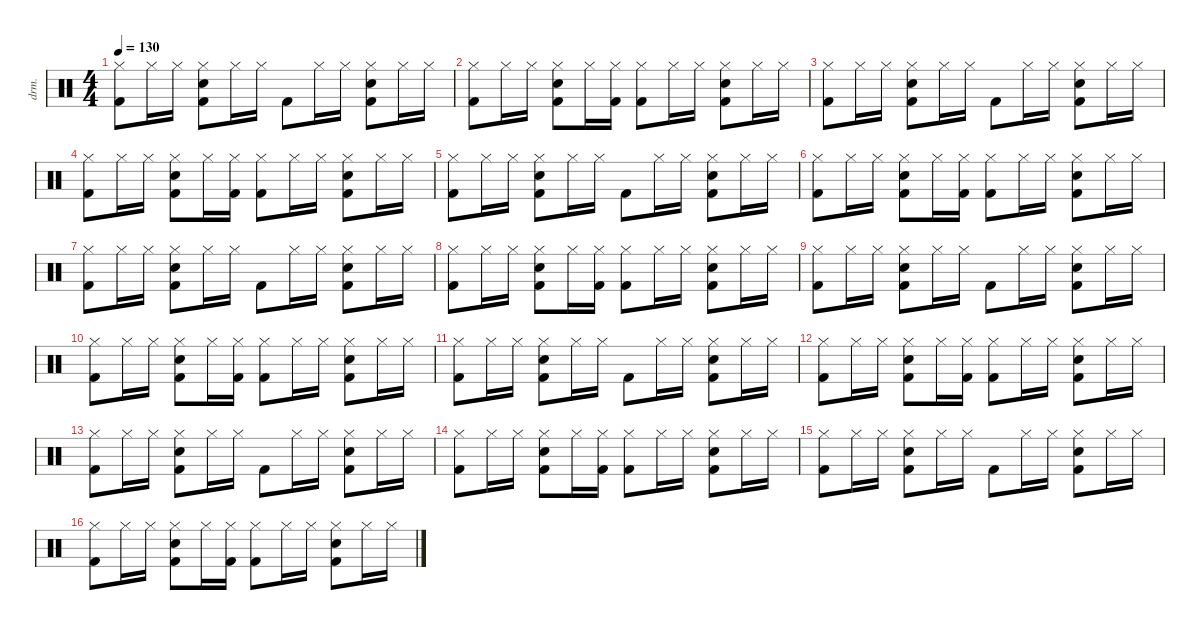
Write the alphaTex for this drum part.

\defaultSystemsLayout 4
\hideDynamics
\bracketExtendMode nobrackets
\otherSystemsTrackNameOrientation horizontal
\track ("Percussion" "drm.") {defaultSystemsLayout 4 instrument percussion}
\staff {score}
\articulation defaults
\ts (4 4)
\tempo 130
\clef neutral
\ks c
("Hi-Hat (closed)" "Kick (hit) 2").8{dy f beam Down} "Hi-Hat (closed)".16{beam Down} "Hi-Hat (closed)".16{beam Down} ("Hi-Hat (closed)" "Snare (hit) 2" "Kick (hit) 2").8{beam Down} "Hi-Hat (closed)".16{beam Down} "Hi-Hat (closed)".16{beam Down} "Kick (hit) 2".8{beam Down} "Hi-Hat (closed)".16{beam Down} "Hi-Hat (closed)".16{beam Down} ("Hi-Hat (closed)" "Snare (hit) 2" "Kick (hit) 2").8{beam Down} "Hi-Hat (closed)".16{beam Down} "Hi-Hat (closed)".16{beam Down} |
("Hi-Hat (closed)" "Kick (hit) 2").8{beam Down} "Hi-Hat (closed)".16{beam Down} "Hi-Hat (closed)".16{beam Down} ("Hi-Hat (closed)" "Snare (hit) 2" "Kick (hit) 2").8{beam Down} "Hi-Hat (closed)".16{beam Down} ("Hi-Hat (closed)" "Kick (hit) 2").16{beam Down} ("Hi-Hat (closed)" "Kick (hit) 2").8{beam Down} "Hi-Hat (closed)".16{beam Down} "Hi-Hat (closed)".16{beam Down} ("Hi-Hat (closed)" "Snare (hit) 2" "Kick (hit) 2").8{beam Down} "Hi-Hat (closed)".16{beam Down} "Hi-Hat (closed)".16{beam Down} |
("Hi-Hat (closed)" "Kick (hit) 2").8{beam Down} "Hi-Hat (closed)".16{beam Down} "Hi-Hat (closed)".16{beam Down} ("Hi-Hat (closed)" "Snare (hit) 2" "Kick (hit) 2").8{beam Down} "Hi-Hat (closed)".16{beam Down} "Hi-Hat (closed)".16{beam Down} "Kick (hit) 2".8{beam Down} "Hi-Hat (closed)".16{beam Down} "Hi-Hat (closed)".16{beam Down} ("Hi-Hat (closed)" "Snare (hit) 2" "Kick (hit) 2").8{beam Down} "Hi-Hat (closed)".16{beam Down} "Hi-Hat (closed)".16{beam Down} |
("Hi-Hat (closed)" "Kick (hit) 2").8{beam Down} "Hi-Hat (closed)".16{beam Down} "Hi-Hat (closed)".16{beam Down} ("Hi-Hat (closed)" "Snare (hit) 2" "Kick (hit) 2").8{beam Down} "Hi-Hat (closed)".16{beam Down} ("Hi-Hat (closed)" "Kick (hit) 2").16{beam Down} ("Hi-Hat (closed)" "Kick (hit) 2").8{beam Down} "Hi-Hat (closed)".16{beam Down} "Hi-Hat (closed)".16{beam Down} ("Hi-Hat (closed)" "Snare (hit) 2" "Kick (hit) 2").8{beam Down} "Hi-Hat (closed)".16{beam Down} "Hi-Hat (closed)".16{beam Down} |
("Hi-Hat (closed)" "Kick (hit) 2").8{beam Down} "Hi-Hat (closed)".16{beam Down} "Hi-Hat (closed)".16{beam Down} ("Hi-Hat (closed)" "Snare (hit) 2" "Kick (hit) 2").8{beam Down} "Hi-Hat (closed)".16{beam Down} "Hi-Hat (closed)".16{beam Down} "Kick (hit) 2".8{beam Down} "Hi-Hat (closed)".16{beam Down} "Hi-Hat (closed)".16{beam Down} ("Hi-Hat (closed)" "Snare (hit) 2" "Kick (hit) 2").8{beam Down} "Hi-Hat (closed)".16{beam Down} "Hi-Hat (closed)".16{beam Down} |
("Hi-Hat (closed)" "Kick (hit) 2").8{beam Down} "Hi-Hat (closed)".16{beam Down} "Hi-Hat (closed)".16{beam Down} ("Hi-Hat (closed)" "Snare (hit) 2" "Kick (hit) 2").8{beam Down} "Hi-Hat (closed)".16{beam Down} ("Hi-Hat (closed)" "Kick (hit) 2").16{beam Down} ("Hi-Hat (closed)" "Kick (hit) 2").8{beam Down} "Hi-Hat (closed)".16{beam Down} "Hi-Hat (closed)".16{beam Down} ("Hi-Hat (closed)" "Snare (hit) 2" "Kick (hit) 2").8{beam Down} "Hi-Hat (closed)".16{beam Down} "Hi-Hat (closed)".16{beam Down} |
("Hi-Hat (closed)" "Kick (hit) 2").8{beam Down} "Hi-Hat (closed)".16{beam Down} "Hi-Hat (closed)".16{beam Down} ("Hi-Hat (closed)" "Snare (hit) 2" "Kick (hit) 2").8{beam Down} "Hi-Hat (closed)".16{beam Down} "Hi-Hat (closed)".16{beam Down} "Kick (hit) 2".8{beam Down} "Hi-Hat (closed)".16{beam Down} "Hi-Hat (closed)".16{beam Down} ("Hi-Hat (closed)" "Snare (hit) 2" "Kick (hit) 2").8{beam Down} "Hi-Hat (closed)".16{beam Down} "Hi-Hat (closed)".16{beam Down} |
("Hi-Hat (closed)" "Kick (hit) 2").8{beam Down} "Hi-Hat (closed)".16{beam Down} "Hi-Hat (closed)".16{beam Down} ("Hi-Hat (closed)" "Snare (hit) 2" "Kick (hit) 2").8{beam Down} "Hi-Hat (closed)".16{beam Down} ("Hi-Hat (closed)" "Kick (hit) 2").16{beam Down} ("Hi-Hat (closed)" "Kick (hit) 2").8{beam Down} "Hi-Hat (closed)".16{beam Down} "Hi-Hat (closed)".16{beam Down} ("Hi-Hat (closed)" "Snare (hit) 2" "Kick (hit) 2").8{beam Down} "Hi-Hat (closed)".16{beam Down} "Hi-Hat (closed)".16{beam Down} |
("Hi-Hat (closed)" "Kick (hit) 2").8{beam Down} "Hi-Hat (closed)".16{beam Down} "Hi-Hat (closed)".16{beam Down} ("Hi-Hat (closed)" "Snare (hit) 2" "Kick (hit) 2").8{beam Down} "Hi-Hat (closed)".16{beam Down} "Hi-Hat (closed)".16{beam Down} "Kick (hit) 2".8{beam Down} "Hi-Hat (closed)".16{beam Down} "Hi-Hat (closed)".16{beam Down} ("Hi-Hat (closed)" "Snare (hit) 2" "Kick (hit) 2").8{beam Down} "Hi-Hat (closed)".16{beam Down} "Hi-Hat (closed)".16{beam Down} |
("Hi-Hat (closed)" "Kick (hit) 2").8{beam Down} "Hi-Hat (closed)".16{beam Down} "Hi-Hat (closed)".16{beam Down} ("Hi-Hat (closed)" "Snare (hit) 2" "Kick (hit) 2").8{beam Down} "Hi-Hat (closed)".16{beam Down} ("Hi-Hat (closed)" "Kick (hit) 2").16{beam Down} ("Hi-Hat (closed)" "Kick (hit) 2").8{beam Down} "Hi-Hat (closed)".16{beam Down} "Hi-Hat (closed)".16{beam Down} ("Hi-Hat (closed)" "Snare (hit) 2" "Kick (hit) 2").8{beam Down} "Hi-Hat (closed)".16{beam Down} "Hi-Hat (closed)".16{beam Down} |
("Hi-Hat (closed)" "Kick (hit) 2").8{beam Down} "Hi-Hat (closed)".16{beam Down} "Hi-Hat (closed)".16{beam Down} ("Hi-Hat (closed)" "Snare (hit) 2" "Kick (hit) 2").8{beam Down} "Hi-Hat (closed)".16{beam Down} "Hi-Hat (closed)".16{beam Down} "Kick (hit) 2".8{beam Down} "Hi-Hat (closed)".16{beam Down} "Hi-Hat (closed)".16{beam Down} ("Hi-Hat (closed)" "Snare (hit) 2" "Kick (hit) 2").8{beam Down} "Hi-Hat (closed)".16{beam Down} "Hi-Hat (closed)".16{beam Down} |
("Hi-Hat (closed)" "Kick (hit) 2").8{beam Down} "Hi-Hat (closed)".16{beam Down} "Hi-Hat (closed)".16{beam Down} ("Hi-Hat (closed)" "Snare (hit) 2" "Kick (hit) 2").8{beam Down} "Hi-Hat (closed)".16{beam Down} ("Hi-Hat (closed)" "Kick (hit) 2").16{beam Down} ("Hi-Hat (closed)" "Kick (hit) 2").8{beam Down} "Hi-Hat (closed)".16{beam Down} "Hi-Hat (closed)".16{beam Down} ("Hi-Hat (closed)" "Snare (hit) 2" "Kick (hit) 2").8{beam Down} "Hi-Hat (closed)".16{beam Down} "Hi-Hat (closed)".16{beam Down} |
("Hi-Hat (closed)" "Kick (hit) 2").8{beam Down} "Hi-Hat (closed)".16{beam Down} "Hi-Hat (closed)".16{beam Down} ("Hi-Hat (closed)" "Snare (hit) 2" "Kick (hit) 2").8{beam Down} "Hi-Hat (closed)".16{beam Down} "Hi-Hat (closed)".16{beam Down} "Kick (hit) 2".8{beam Down} "Hi-Hat (closed)".16{beam Down} "Hi-Hat (closed)".16{beam Down} ("Hi-Hat (closed)" "Snare (hit) 2" "Kick (hit) 2").8{beam Down} "Hi-Hat (closed)".16{beam Down} "Hi-Hat (closed)".16{beam Down} |
("Hi-Hat (closed)" "Kick (hit) 2").8{beam Down} "Hi-Hat (closed)".16{beam Down} "Hi-Hat (closed)".16{beam Down} ("Hi-Hat (closed)" "Snare (hit) 2" "Kick (hit) 2").8{beam Down} "Hi-Hat (closed)".16{beam Down} ("Hi-Hat (closed)" "Kick (hit) 2").16{beam Down} ("Hi-Hat (closed)" "Kick (hit) 2").8{beam Down} "Hi-Hat (closed)".16{beam Down} "Hi-Hat (closed)".16{beam Down} ("Hi-Hat (closed)" "Snare (hit) 2" "Kick (hit) 2").8{beam Down} "Hi-Hat (closed)".16{beam Down} "Hi-Hat (closed)".16{beam Down} |
("Hi-Hat (closed)" "Kick (hit) 2").8{beam Down} "Hi-Hat (closed)".16{beam Down} "Hi-Hat (closed)".16{beam Down} ("Hi-Hat (closed)" "Snare (hit) 2" "Kick (hit) 2").8{beam Down} "Hi-Hat (closed)".16{beam Down} "Hi-Hat (closed)".16{beam Down} "Kick (hit) 2".8{beam Down} "Hi-Hat (closed)".16{beam Down} "Hi-Hat (closed)".16{beam Down} ("Hi-Hat (closed)" "Snare (hit) 2" "Kick (hit) 2").8{beam Down} "Hi-Hat (closed)".16{beam Down} "Hi-Hat (closed)".16{beam Down} |
("Hi-Hat (closed)" "Kick (hit) 2").8{beam Down} "Hi-Hat (closed)".16{beam Down} "Hi-Hat (closed)".16{beam Down} ("Hi-Hat (closed)" "Snare (hit) 2" "Kick (hit) 2").8{beam Down} "Hi-Hat (closed)".16{beam Down} ("Hi-Hat (closed)" "Kick (hit) 2").16{beam Down} ("Hi-Hat (closed)" "Kick (hit) 2").8{beam Down} "Hi-Hat (closed)".16{beam Down} "Hi-Hat (closed)".16{beam Down} ("Hi-Hat (closed)" "Snare (hit) 2" "Kick (hit) 2").8{beam Down} "Hi-Hat (closed)".16{beam Down} "Hi-Hat (closed)".16{beam Down}
